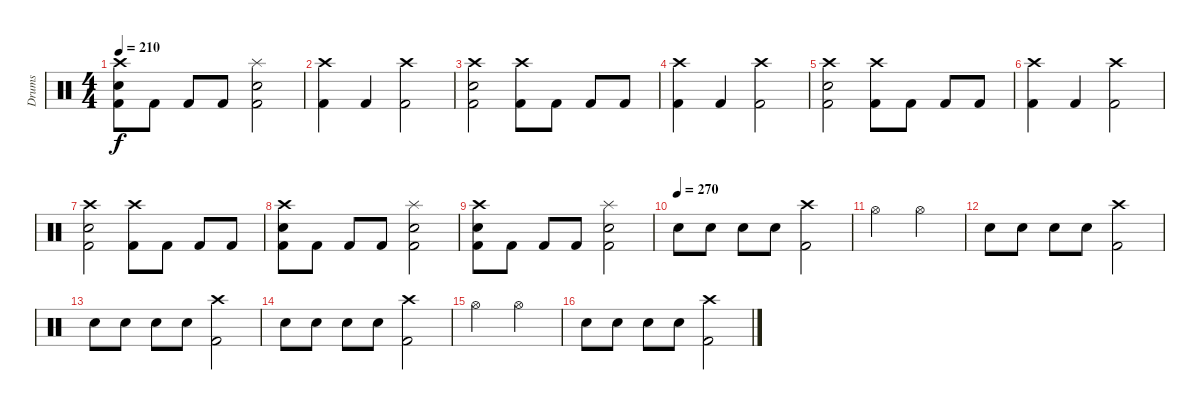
\track ("Drums" "Drums") {instrument percussion}
\staff {score}
\articulation defaults
\ts (4 4)
\tempo 210
\clef neutral
\ks c
("Crash high (hit)" "Snare (hit) 2" "Kick (hit) 2").8{dy f} "Kick (hit) 2".8 "Kick (hit) 2".8 "Kick (hit) 2".8 ("Splash (hit)" "Snare (hit) 2" "Kick (hit) 2").2 |
("Crash high (hit)" "Kick (hit) 2").4 "Kick (hit) 2".4 ("Crash high (hit)" "Kick (hit) 2").2 |
("Crash high (hit)" "Snare (hit) 2" "Kick (hit) 2").2 ("Crash high (hit)" "Kick (hit) 2").8 "Kick (hit) 2".8 "Kick (hit) 2".8 "Kick (hit) 2".8 |
("Crash high (hit)" "Kick (hit) 2").4 "Kick (hit) 2".4 ("Crash high (hit)" "Kick (hit) 2").2 |
("Crash high (hit)" "Snare (hit) 2" "Kick (hit) 2").2 ("Crash high (hit)" "Kick (hit) 2").8 "Kick (hit) 2".8 "Kick (hit) 2".8 "Kick (hit) 2".8 |
("Crash high (hit)" "Kick (hit) 2").4 "Kick (hit) 2".4 ("Crash high (hit)" "Kick (hit) 2").2 |
("Crash high (hit)" "Snare (hit) 2" "Kick (hit) 2").2 ("Crash high (hit)" "Kick (hit) 2").8 "Kick (hit) 2".8 "Kick (hit) 2".8 "Kick (hit) 2".8 |
("Crash high (hit)" "Snare (hit) 2" "Kick (hit) 2").8 "Kick (hit) 2".8 "Kick (hit) 2".8 "Kick (hit) 2".8 ("Splash (hit)" "Snare (hit) 2" "Kick (hit) 2").2 |
("Crash high (hit)" "Snare (hit) 2" "Kick (hit) 2").8 "Kick (hit) 2".8 "Kick (hit) 2".8 "Kick (hit) 2".8 ("Splash (hit)" "Snare (hit) 2" "Kick (hit) 2").2 |
\tempo (270)
"Snare (hit) 2".8 "Snare (hit) 2".8 "Snare (hit) 2".8 "Snare (hit) 2".8 ("Crash high (hit)" "Kick (hit) 2").2 |
"Hi-Hat (open)".2 "Hi-Hat (open)".2 |
"Snare (hit) 2".8 "Snare (hit) 2".8 "Snare (hit) 2".8 "Snare (hit) 2".8 ("Crash high (hit)" "Kick (hit) 2").2 |
"Snare (hit) 2".8 "Snare (hit) 2".8 "Snare (hit) 2".8 "Snare (hit) 2".8 ("Crash high (hit)" "Kick (hit) 2").2 |
"Snare (hit) 2".8 "Snare (hit) 2".8 "Snare (hit) 2".8 "Snare (hit) 2".8 ("Crash high (hit)" "Kick (hit) 2").2 |
"Hi-Hat (open)".2 "Hi-Hat (open)".2 |
"Snare (hit) 2".8 "Snare (hit) 2".8 "Snare (hit) 2".8 "Snare (hit) 2".8 ("Crash high (hit)" "Kick (hit) 2").2
